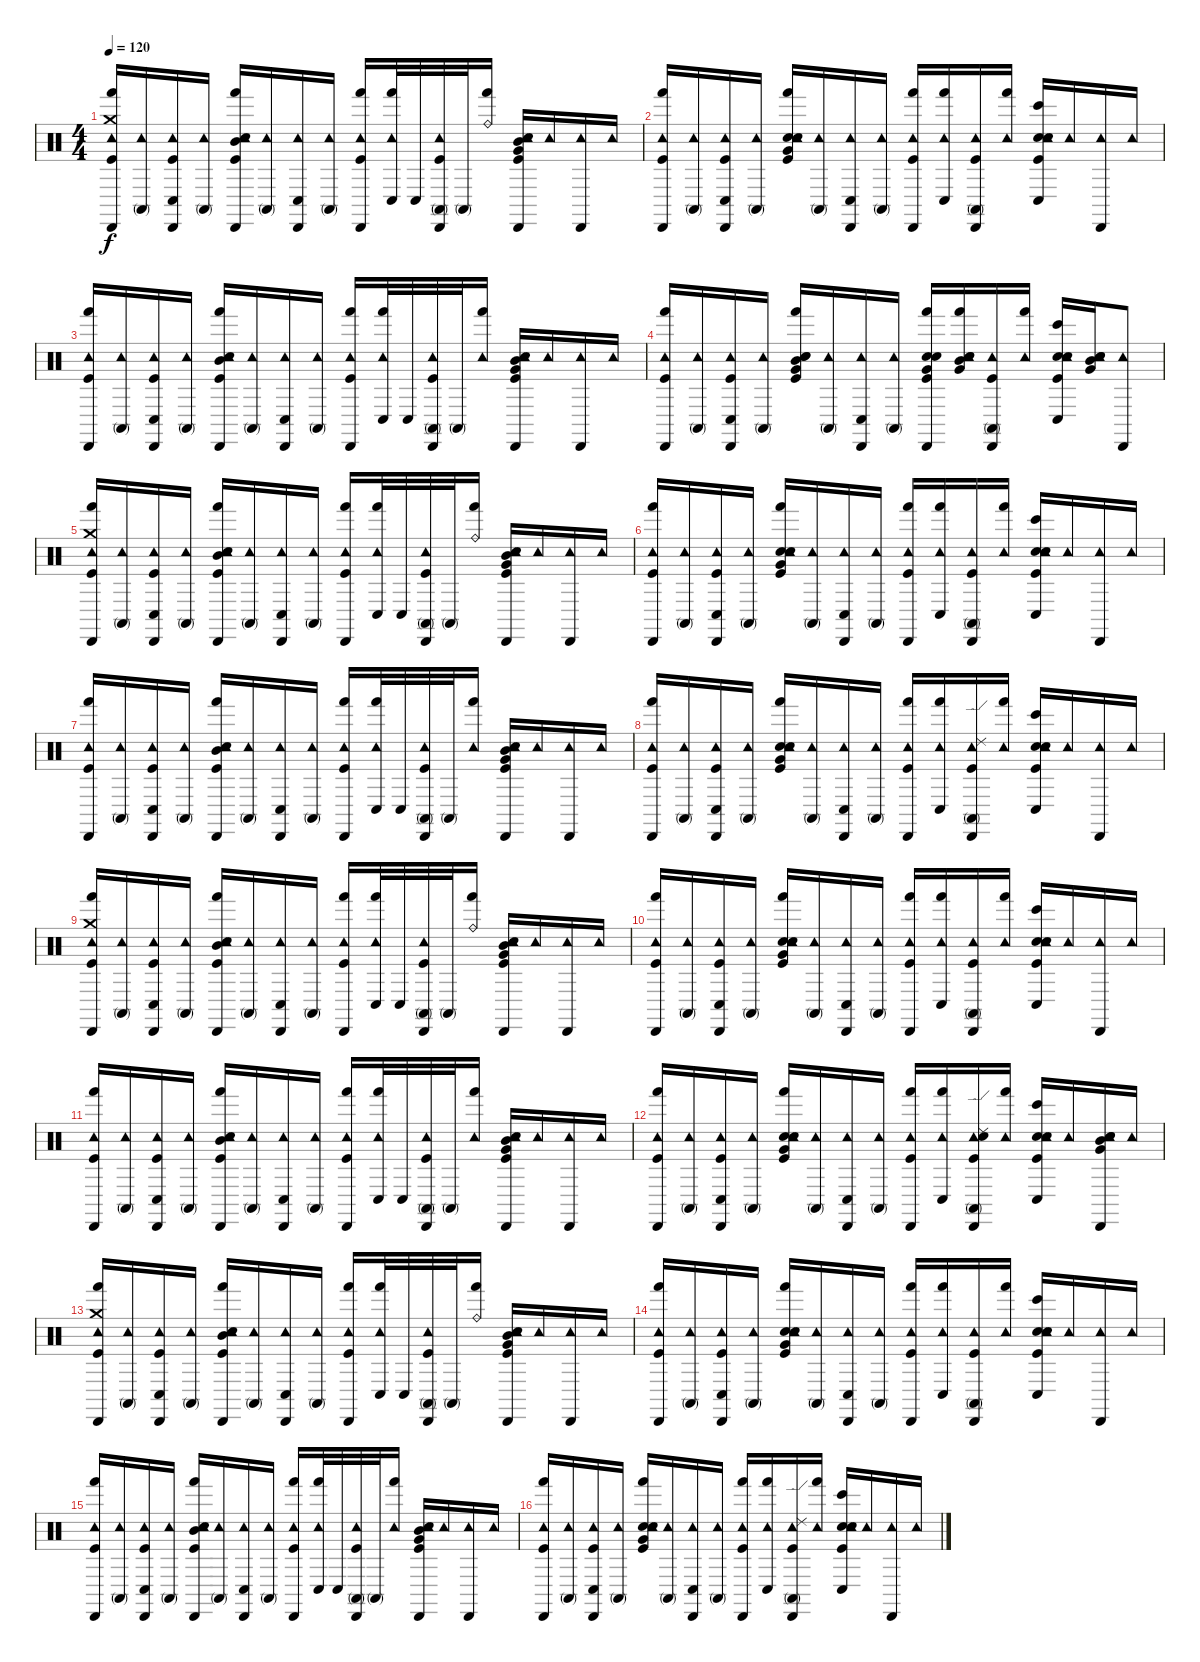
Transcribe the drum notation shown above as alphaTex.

\track "" {instrument percussion}
\staff {score}
\articulation defaults
\ts (4 4)
\tempo 120
\clef neutral
\ks c
("Hand (hit)" "Kick (hit)" "Cabasa (hit)" "Crash medium (hit)" "Tambourine (hit)").16{dy f} ("Conga high (mute)" "Tambourine (hit)").16 ("Conga low (hit)" "Kick (hit)" "Cabasa (hit)" "Tambourine (hit)").16 ("Conga high (mute)" "Tambourine (hit)").16 ("Hand (hit)" "Kick (hit)" "Tambourine (hit)" "Snare (hit) 2" "Cabasa (hit)" "Mid Tom (hit)").16 ("Conga high (mute)" "Tambourine (hit)").16 ("Conga low (hit)" "Cabasa (hit)" "Tambourine (hit)").16 ("Conga high (mute)" "Tambourine (hit)").16 ("Hand (hit)" "Kick (hit)" "Cabasa (hit)" "Tambourine (hit)").16 ("Conga low (hit)" "Hand (hit)" "Tambourine (hit)").32 "Conga low (hit)".32 ("Conga high (mute)" "Kick (hit)" "Cabasa (hit)" "Tambourine (hit)").32 "Conga high (mute)".32 ("Hand (hit)" "Ride (bell)").16 ("Kick (hit)" "Snare (hit) 2" "Tambourine (hit)" "Cabasa (hit)" "Mid Tom (hit)" "Very Low Tom (hit)").16 "Tambourine (hit)".16 ("Cabasa (hit)" "Tambourine (hit)").16 "Tambourine (hit)".16 |
("Hand (hit)" "Kick (hit)" "Cabasa (hit)" "Tambourine (hit)").16 ("Conga high (mute)" "Tambourine (hit)").16 ("Conga low (hit)" "Kick (hit)" "Cabasa (hit)" "Tambourine (hit)").16 ("Conga high (mute)" "Tambourine (hit)").16 ("Hand (hit)" "Kick (hit)" "Snare (hit) 2" "Tambourine (hit)" "Electric Snare (hit)" "Very Low Tom (hit)").16 ("Conga high (mute)" "Tambourine (hit)").16 ("Conga low (hit)" "Cabasa (hit)" "Tambourine (hit)").16 ("Conga high (mute)" "Tambourine (hit)").16 ("Hand (hit)" "Kick (hit)" "Cabasa (hit)" "Tambourine (hit)").16 ("Conga low (hit)" "Hand (hit)" "Tambourine (hit)").16 ("Conga high (mute)" "Kick (hit)" "Cabasa (hit)" "Tambourine (hit)").16 ("Hand (hit)" "Tambourine (hit)").16 ("Kick (hit)" "Snare (hit) 2" "Tambourine (hit)" "Bongo High (hit)" "Conga low (hit)" "Electric Snare (hit)").16 "Tambourine (hit)".16 ("Cabasa (hit)" "Tambourine (hit)").16 "Tambourine (hit)".16 |
("Hand (hit)" "Kick (hit)" "Cabasa (hit)" "Tambourine (hit)").16 ("Conga high (mute)" "Tambourine (hit)").16 ("Conga low (hit)" "Kick (hit)" "Cabasa (hit)" "Tambourine (hit)").16 ("Conga high (mute)" "Tambourine (hit)").16 ("Hand (hit)" "Kick (hit)" "Tambourine (hit)" "Snare (hit) 2" "Cabasa (hit)" "Mid Tom (hit)").16 ("Conga high (mute)" "Tambourine (hit)").16 ("Conga low (hit)" "Cabasa (hit)" "Tambourine (hit)").16 ("Conga high (mute)" "Tambourine (hit)").16 ("Hand (hit)" "Kick (hit)" "Cabasa (hit)" "Tambourine (hit)").16 ("Conga low (hit)" "Hand (hit)" "Tambourine (hit)").32 "Conga low (hit)".32 ("Conga high (mute)" "Kick (hit)" "Cabasa (hit)" "Tambourine (hit)").32 "Conga high (mute)".32 ("Hand (hit)" "Tambourine (hit)").16 ("Kick (hit)" "Snare (hit) 2" "Tambourine (hit)" "Cabasa (hit)" "Mid Tom (hit)" "Very Low Tom (hit)").16 "Tambourine (hit)".16 ("Cabasa (hit)" "Tambourine (hit)").16 "Tambourine (hit)".16 |
("Hand (hit)" "Kick (hit)" "Cabasa (hit)" "Tambourine (hit)").16 ("Conga high (mute)" "Tambourine (hit)").16 ("Conga low (hit)" "Kick (hit)" "Cabasa (hit)" "Tambourine (hit)").16 ("Conga high (mute)" "Tambourine (hit)").16 ("Hand (hit)" "Kick (hit)" "Snare (hit) 2" "Electric Snare (hit)" "Very Low Tom (hit)" "Mid Tom (hit)").16 ("Conga high (mute)" "Tambourine (hit)").16 ("Conga low (hit)" "Cabasa (hit)" "Tambourine (hit)").16 ("Conga high (mute)" "Tambourine (hit)").16 ("Hand (hit)" "Kick (hit)" "Cabasa (hit)" "Electric Snare (hit)" "Snare (hit) 2" "Very Low Tom (hit)").16 ("Hand (hit)" "Snare (hit) 2" "Electric Snare (hit)" "Very Low Tom (hit)" "Mid Tom (hit)" "Tambourine (hit)").16 ("Conga high (mute)" "Kick (hit)" "Cabasa (hit)" "Tambourine (hit)").16 ("Hand (hit)" "Tambourine (hit)").16 ("Kick (hit)" "Snare (hit) 2" "Tambourine (hit)" "Bongo High (hit)" "Conga low (hit)" "Electric Snare (hit)").16 ("Snare (hit) 2" "Electric Snare (hit)" "Very Low Tom (hit)" "Mid Tom (hit)" "Tambourine (hit)").16 ("Cabasa (hit)" "Tambourine (hit)").8 |
("Hand (hit)" "Kick (hit)" "Cabasa (hit)" "Crash medium (hit)" "Tambourine (hit)").16 ("Conga high (mute)" "Tambourine (hit)").16 ("Conga low (hit)" "Kick (hit)" "Cabasa (hit)" "Tambourine (hit)").16 ("Conga high (mute)" "Tambourine (hit)").16 ("Hand (hit)" "Kick (hit)" "Tambourine (hit)" "Snare (hit) 2" "Cabasa (hit)" "Mid Tom (hit)").16 ("Conga high (mute)" "Tambourine (hit)").16 ("Conga low (hit)" "Cabasa (hit)" "Tambourine (hit)").16 ("Conga high (mute)" "Tambourine (hit)").16 ("Hand (hit)" "Kick (hit)" "Cabasa (hit)" "Tambourine (hit)").16 ("Conga low (hit)" "Hand (hit)" "Tambourine (hit)").32 "Conga low (hit)".32 ("Conga high (mute)" "Kick (hit)" "Cabasa (hit)" "Tambourine (hit)").32 "Conga high (mute)".32 ("Hand (hit)" "Ride (bell)").16 ("Kick (hit)" "Snare (hit) 2" "Tambourine (hit)" "Cabasa (hit)" "Mid Tom (hit)" "Very Low Tom (hit)").16 "Tambourine (hit)".16 ("Cabasa (hit)" "Tambourine (hit)").16 "Tambourine (hit)".16 |
("Hand (hit)" "Kick (hit)" "Cabasa (hit)" "Tambourine (hit)").16 ("Conga high (mute)" "Tambourine (hit)").16 ("Conga low (hit)" "Kick (hit)" "Cabasa (hit)" "Tambourine (hit)").16 ("Conga high (mute)" "Tambourine (hit)").16 ("Hand (hit)" "Kick (hit)" "Snare (hit) 2" "Tambourine (hit)" "Electric Snare (hit)" "Very Low Tom (hit)").16 ("Conga high (mute)" "Tambourine (hit)").16 ("Conga low (hit)" "Cabasa (hit)" "Tambourine (hit)").16 ("Conga high (mute)" "Tambourine (hit)").16 ("Hand (hit)" "Kick (hit)" "Cabasa (hit)" "Tambourine (hit)").16 ("Conga low (hit)" "Hand (hit)" "Tambourine (hit)").16 ("Conga high (mute)" "Kick (hit)" "Cabasa (hit)" "Tambourine (hit)").16 ("Hand (hit)" "Tambourine (hit)").16 ("Kick (hit)" "Snare (hit) 2" "Tambourine (hit)" "Bongo High (hit)" "Conga low (hit)" "Electric Snare (hit)").16 "Tambourine (hit)".16 ("Cabasa (hit)" "Tambourine (hit)").16 "Tambourine (hit)".16 |
("Hand (hit)" "Kick (hit)" "Cabasa (hit)" "Tambourine (hit)").16 ("Conga high (mute)" "Tambourine (hit)").16 ("Conga low (hit)" "Kick (hit)" "Cabasa (hit)" "Tambourine (hit)").16 ("Conga high (mute)" "Tambourine (hit)").16 ("Hand (hit)" "Kick (hit)" "Tambourine (hit)" "Snare (hit) 2" "Cabasa (hit)" "Mid Tom (hit)").16 ("Conga high (mute)" "Tambourine (hit)").16 ("Conga low (hit)" "Cabasa (hit)" "Tambourine (hit)").16 ("Conga high (mute)" "Tambourine (hit)").16 ("Hand (hit)" "Kick (hit)" "Cabasa (hit)" "Tambourine (hit)").16 ("Conga low (hit)" "Hand (hit)" "Tambourine (hit)").32 "Conga low (hit)".32 ("Conga high (mute)" "Kick (hit)" "Cabasa (hit)" "Tambourine (hit)").32 "Conga high (mute)".32 ("Hand (hit)" "Tambourine (hit)").16 ("Kick (hit)" "Snare (hit) 2" "Tambourine (hit)" "Cabasa (hit)" "Mid Tom (hit)" "Very Low Tom (hit)").16 "Tambourine (hit)".16 ("Cabasa (hit)" "Tambourine (hit)").16 "Tambourine (hit)".16 |
("Hand (hit)" "Kick (hit)" "Cabasa (hit)" "Tambourine (hit)").16 ("Conga high (mute)" "Tambourine (hit)").16 ("Conga low (hit)" "Kick (hit)" "Cabasa (hit)" "Tambourine (hit)").16 ("Conga high (mute)" "Tambourine (hit)").16 ("Hand (hit)" "Kick (hit)" "Snare (hit) 2" "Tambourine (hit)" "Electric Snare (hit)" "Very Low Tom (hit)").16 ("Conga high (mute)" "Tambourine (hit)").16 ("Conga low (hit)" "Cabasa (hit)" "Tambourine (hit)").16 ("Conga high (mute)" "Tambourine (hit)").16 ("Hand (hit)" "Kick (hit)" "Cabasa (hit)" "Tambourine (hit)").16 ("Conga low (hit)" "Hand (hit)" "Tambourine (hit)").16 ("Conga high (mute)" "Kick (hit)" "Cabasa (hit)" "Ride (edge) 2" "Tambourine (hit)").16 ("Hand (hit)" "Tambourine (hit)").16 ("Kick (hit)" "Snare (hit) 2" "Tambourine (hit)" "Bongo High (hit)" "Conga low (hit)" "Electric Snare (hit)").16 "Tambourine (hit)".16 ("Cabasa (hit)" "Tambourine (hit)").16 "Tambourine (hit)".16 |
("Hand (hit)" "Kick (hit)" "Cabasa (hit)" "Crash medium (hit)" "Tambourine (hit)").16 ("Conga high (mute)" "Tambourine (hit)").16 ("Conga low (hit)" "Kick (hit)" "Cabasa (hit)" "Tambourine (hit)").16 ("Conga high (mute)" "Tambourine (hit)").16 ("Hand (hit)" "Kick (hit)" "Tambourine (hit)" "Snare (hit) 2" "Cabasa (hit)" "Mid Tom (hit)").16 ("Conga high (mute)" "Tambourine (hit)").16 ("Conga low (hit)" "Cabasa (hit)" "Tambourine (hit)").16 ("Conga high (mute)" "Tambourine (hit)").16 ("Hand (hit)" "Kick (hit)" "Cabasa (hit)" "Tambourine (hit)").16 ("Conga low (hit)" "Hand (hit)" "Tambourine (hit)").32 "Conga low (hit)".32 ("Conga high (mute)" "Kick (hit)" "Cabasa (hit)" "Tambourine (hit)").32 "Conga high (mute)".32 ("Hand (hit)" "Ride (bell)").16 ("Kick (hit)" "Snare (hit) 2" "Tambourine (hit)" "Cabasa (hit)" "Mid Tom (hit)" "Very Low Tom (hit)").16 "Tambourine (hit)".16 ("Cabasa (hit)" "Tambourine (hit)").16 "Tambourine (hit)".16 |
("Hand (hit)" "Kick (hit)" "Cabasa (hit)" "Tambourine (hit)").16 ("Conga high (mute)" "Tambourine (hit)").16 ("Conga low (hit)" "Kick (hit)" "Cabasa (hit)" "Tambourine (hit)").16 ("Conga high (mute)" "Tambourine (hit)").16 ("Hand (hit)" "Kick (hit)" "Snare (hit) 2" "Tambourine (hit)" "Electric Snare (hit)" "Very Low Tom (hit)").16 ("Conga high (mute)" "Tambourine (hit)").16 ("Conga low (hit)" "Cabasa (hit)" "Tambourine (hit)").16 ("Conga high (mute)" "Tambourine (hit)").16 ("Hand (hit)" "Kick (hit)" "Cabasa (hit)" "Tambourine (hit)").16 ("Conga low (hit)" "Hand (hit)" "Tambourine (hit)").16 ("Conga high (mute)" "Kick (hit)" "Cabasa (hit)" "Tambourine (hit)").16 ("Hand (hit)" "Tambourine (hit)").16 ("Kick (hit)" "Snare (hit) 2" "Tambourine (hit)" "Bongo High (hit)" "Conga low (hit)" "Electric Snare (hit)").16 "Tambourine (hit)".16 ("Cabasa (hit)" "Tambourine (hit)").16 "Tambourine (hit)".16 |
("Hand (hit)" "Kick (hit)" "Cabasa (hit)" "Tambourine (hit)").16 ("Conga high (mute)" "Tambourine (hit)").16 ("Conga low (hit)" "Kick (hit)" "Cabasa (hit)" "Tambourine (hit)").16 ("Conga high (mute)" "Tambourine (hit)").16 ("Hand (hit)" "Kick (hit)" "Tambourine (hit)" "Snare (hit) 2" "Cabasa (hit)" "Mid Tom (hit)").16 ("Conga high (mute)" "Tambourine (hit)").16 ("Conga low (hit)" "Cabasa (hit)" "Tambourine (hit)").16 ("Conga high (mute)" "Tambourine (hit)").16 ("Hand (hit)" "Kick (hit)" "Cabasa (hit)" "Tambourine (hit)").16 ("Conga low (hit)" "Hand (hit)" "Tambourine (hit)").32 "Conga low (hit)".32 ("Conga high (mute)" "Kick (hit)" "Cabasa (hit)" "Tambourine (hit)").32 "Conga high (mute)".32 ("Hand (hit)" "Tambourine (hit)").16 ("Kick (hit)" "Snare (hit) 2" "Tambourine (hit)" "Cabasa (hit)" "Mid Tom (hit)" "Very Low Tom (hit)").16 "Tambourine (hit)".16 ("Cabasa (hit)" "Tambourine (hit)").16 "Tambourine (hit)".16 |
("Hand (hit)" "Kick (hit)" "Cabasa (hit)" "Tambourine (hit)").16 ("Conga high (mute)" "Tambourine (hit)").16 ("Conga low (hit)" "Kick (hit)" "Cabasa (hit)" "Tambourine (hit)").16 ("Conga high (mute)" "Tambourine (hit)").16 ("Hand (hit)" "Kick (hit)" "Snare (hit) 2" "Tambourine (hit)" "Electric Snare (hit)" "Very Low Tom (hit)").16 ("Conga high (mute)" "Tambourine (hit)").16 ("Conga low (hit)" "Cabasa (hit)" "Tambourine (hit)").16 ("Conga high (mute)" "Tambourine (hit)").16 ("Hand (hit)" "Kick (hit)" "Cabasa (hit)" "Tambourine (hit)").16 ("Conga low (hit)" "Hand (hit)" "Tambourine (hit)").16 ("Conga high (mute)" "Kick (hit)" "Cabasa (hit)" "Ride (edge) 2" "Tambourine (hit)" "Electric Snare (hit)").16 ("Hand (hit)" "Tambourine (hit)").16 ("Kick (hit)" "Snare (hit) 2" "Tambourine (hit)" "Bongo High (hit)" "Conga low (hit)" "Electric Snare (hit)").16 "Tambourine (hit)".16 ("Cabasa (hit)" "Tambourine (hit)" "Mid Tom (hit)" "Very Low Tom (hit)" "Electric Snare (hit)" "Snare (hit) 2").16 "Tambourine (hit)".16 |
("Hand (hit)" "Kick (hit)" "Cabasa (hit)" "Crash medium (hit)" "Tambourine (hit)").16 ("Conga high (mute)" "Tambourine (hit)").16 ("Conga low (hit)" "Kick (hit)" "Cabasa (hit)" "Tambourine (hit)").16 ("Conga high (mute)" "Tambourine (hit)").16 ("Hand (hit)" "Kick (hit)" "Tambourine (hit)" "Snare (hit) 2" "Cabasa (hit)" "Mid Tom (hit)").16 ("Conga high (mute)" "Tambourine (hit)").16 ("Conga low (hit)" "Cabasa (hit)" "Tambourine (hit)").16 ("Conga high (mute)" "Tambourine (hit)").16 ("Hand (hit)" "Kick (hit)" "Cabasa (hit)" "Tambourine (hit)").16 ("Conga low (hit)" "Hand (hit)" "Tambourine (hit)").32 "Conga low (hit)".32 ("Conga high (mute)" "Kick (hit)" "Cabasa (hit)" "Tambourine (hit)").32 "Conga high (mute)".32 ("Hand (hit)" "Ride (bell)").16 ("Kick (hit)" "Snare (hit) 2" "Tambourine (hit)" "Cabasa (hit)" "Mid Tom (hit)" "Very Low Tom (hit)").16 "Tambourine (hit)".16 ("Cabasa (hit)" "Tambourine (hit)").16 "Tambourine (hit)".16 |
("Hand (hit)" "Kick (hit)" "Cabasa (hit)" "Tambourine (hit)").16 ("Conga high (mute)" "Tambourine (hit)").16 ("Conga low (hit)" "Kick (hit)" "Cabasa (hit)" "Tambourine (hit)").16 ("Conga high (mute)" "Tambourine (hit)").16 ("Hand (hit)" "Kick (hit)" "Snare (hit) 2" "Tambourine (hit)" "Electric Snare (hit)" "Very Low Tom (hit)").16 ("Conga high (mute)" "Tambourine (hit)").16 ("Conga low (hit)" "Cabasa (hit)" "Tambourine (hit)").16 ("Conga high (mute)" "Tambourine (hit)").16 ("Hand (hit)" "Kick (hit)" "Cabasa (hit)" "Tambourine (hit)").16 ("Conga low (hit)" "Hand (hit)" "Tambourine (hit)").16 ("Conga high (mute)" "Kick (hit)" "Cabasa (hit)" "Tambourine (hit)").16 ("Hand (hit)" "Tambourine (hit)").16 ("Kick (hit)" "Snare (hit) 2" "Tambourine (hit)" "Bongo High (hit)" "Conga low (hit)" "Electric Snare (hit)").16 "Tambourine (hit)".16 ("Cabasa (hit)" "Tambourine (hit)").16 "Tambourine (hit)".16 |
("Hand (hit)" "Kick (hit)" "Cabasa (hit)" "Tambourine (hit)").16 ("Conga high (mute)" "Tambourine (hit)").16 ("Conga low (hit)" "Kick (hit)" "Cabasa (hit)" "Tambourine (hit)").16 ("Conga high (mute)" "Tambourine (hit)").16 ("Hand (hit)" "Kick (hit)" "Tambourine (hit)" "Snare (hit) 2" "Cabasa (hit)" "Mid Tom (hit)").16 ("Conga high (mute)" "Tambourine (hit)").16 ("Conga low (hit)" "Cabasa (hit)" "Tambourine (hit)").16 ("Conga high (mute)" "Tambourine (hit)").16 ("Hand (hit)" "Kick (hit)" "Cabasa (hit)" "Tambourine (hit)").16 ("Conga low (hit)" "Hand (hit)" "Tambourine (hit)").32 "Conga low (hit)".32 ("Conga high (mute)" "Kick (hit)" "Cabasa (hit)" "Tambourine (hit)").32 "Conga high (mute)".32 ("Hand (hit)" "Tambourine (hit)").16 ("Kick (hit)" "Snare (hit) 2" "Tambourine (hit)" "Cabasa (hit)" "Mid Tom (hit)" "Very Low Tom (hit)").16 "Tambourine (hit)".16 ("Cabasa (hit)" "Tambourine (hit)").16 "Tambourine (hit)".16 |
("Hand (hit)" "Kick (hit)" "Cabasa (hit)" "Tambourine (hit)").16 ("Conga high (mute)" "Tambourine (hit)").16 ("Conga low (hit)" "Kick (hit)" "Cabasa (hit)" "Tambourine (hit)").16 ("Conga high (mute)" "Tambourine (hit)").16 ("Hand (hit)" "Kick (hit)" "Snare (hit) 2" "Tambourine (hit)" "Electric Snare (hit)" "Very Low Tom (hit)").16 ("Conga high (mute)" "Tambourine (hit)").16 ("Conga low (hit)" "Cabasa (hit)" "Tambourine (hit)").16 ("Conga high (mute)" "Tambourine (hit)").16 ("Hand (hit)" "Kick (hit)" "Cabasa (hit)" "Tambourine (hit)").16 ("Conga low (hit)" "Hand (hit)" "Tambourine (hit)").16 ("Conga high (mute)" "Kick (hit)" "Cabasa (hit)" "Ride (edge) 2" "Tambourine (hit)").16 ("Hand (hit)" "Tambourine (hit)").16 ("Kick (hit)" "Snare (hit) 2" "Tambourine (hit)" "Bongo High (hit)" "Conga low (hit)" "Electric Snare (hit)").16 "Tambourine (hit)".16 ("Cabasa (hit)" "Tambourine (hit)").16 "Tambourine (hit)".16
